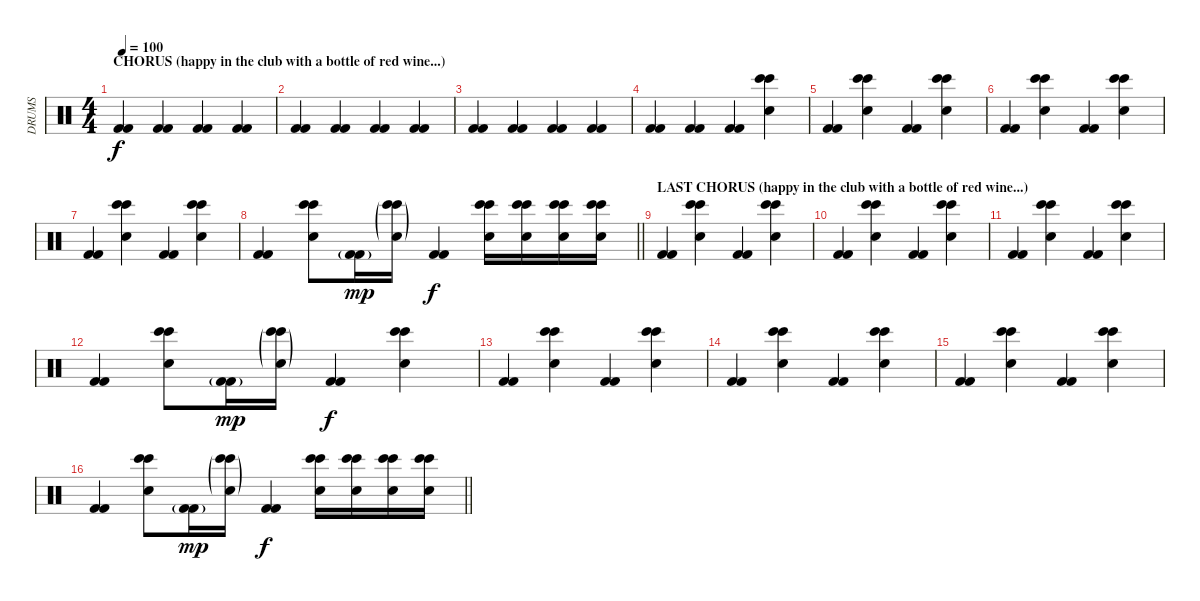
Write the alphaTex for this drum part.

\track ("DRUMS" "DRUMS") {instrument percussion}
\staff {score}
\articulation defaults
\ts (4 4)
\section ("" "CHORUS (happy in the club with a bottle of red wine...)")
\tempo 100
\clef neutral
\ks c
("Kick (hit) 2" "Kick (hit) 2").4{dy f} ("Kick (hit) 2" "Kick (hit) 2").4 ("Kick (hit) 2" "Kick (hit) 2").4 ("Kick (hit) 2" "Kick (hit) 2").4 |
("Kick (hit) 2" "Kick (hit) 2").4 ("Kick (hit) 2" "Kick (hit) 2").4 ("Kick (hit) 2" "Kick (hit) 2").4 ("Kick (hit) 2" "Kick (hit) 2").4 |
("Kick (hit) 2" "Kick (hit) 2").4 ("Kick (hit) 2" "Kick (hit) 2").4 ("Kick (hit) 2" "Kick (hit) 2").4 ("Kick (hit) 2" "Kick (hit) 2").4 |
("Kick (hit) 2" "Kick (hit) 2").4 ("Kick (hit) 2" "Kick (hit) 2").4 ("Kick (hit) 2" "Kick (hit) 2").4 ("Bongo High (hit)" "Bongo High (hit)" "Snare (hit) 2").4 |
("Kick (hit) 2" "Kick (hit) 2").4 ("Bongo High (hit)" "Bongo High (hit)" "Snare (hit) 2").4 ("Kick (hit) 2" "Kick (hit) 2").4 ("Bongo High (hit)" "Bongo High (hit)" "Snare (hit) 2").4 |
("Kick (hit) 2" "Kick (hit) 2").4 ("Bongo High (hit)" "Bongo High (hit)" "Snare (hit) 2").4 ("Kick (hit) 2" "Kick (hit) 2").4 ("Bongo High (hit)" "Bongo High (hit)" "Snare (hit) 2").4 |
("Kick (hit) 2" "Kick (hit) 2").4 ("Bongo High (hit)" "Bongo High (hit)" "Snare (hit) 2").4 ("Kick (hit) 2" "Kick (hit) 2").4 ("Bongo High (hit)" "Bongo High (hit)" "Snare (hit) 2").4 |
\barLineRight lightlight
("Kick (hit) 2" "Kick (hit) 2").4 ("Bongo High (hit)" "Bongo High (hit)" "Snare (hit) 2").8 ("Kick (hit) 2"{g} "Kick (hit) 2"{g}).16{dy mp} ("Bongo High (hit)"{g} "Bongo High (hit)"{g} "Snare (hit) 2"{g}).16 ("Kick (hit) 2" "Kick (hit) 2").4{dy f} ("Bongo High (hit)" "Bongo High (hit)" "Snare (hit) 2").16 ("Bongo High (hit)" "Bongo High (hit)" "Snare (hit) 2").16 ("Bongo High (hit)" "Bongo High (hit)" "Snare (hit) 2").16 ("Bongo High (hit)" "Bongo High (hit)" "Snare (hit) 2").16 |
\section ("" "LAST CHORUS (happy in the club with a bottle of red wine...)")
("Kick (hit) 2" "Kick (hit) 2").4 ("Bongo High (hit)" "Bongo High (hit)" "Snare (hit) 2").4 ("Kick (hit) 2" "Kick (hit) 2").4 ("Bongo High (hit)" "Bongo High (hit)" "Snare (hit) 2").4 |
("Kick (hit) 2" "Kick (hit) 2").4 ("Bongo High (hit)" "Bongo High (hit)" "Snare (hit) 2").4 ("Kick (hit) 2" "Kick (hit) 2").4 ("Bongo High (hit)" "Bongo High (hit)" "Snare (hit) 2").4 |
("Kick (hit) 2" "Kick (hit) 2").4 ("Bongo High (hit)" "Bongo High (hit)" "Snare (hit) 2").4 ("Kick (hit) 2" "Kick (hit) 2").4 ("Bongo High (hit)" "Bongo High (hit)" "Snare (hit) 2").4 |
("Kick (hit) 2" "Kick (hit) 2").4 ("Bongo High (hit)" "Bongo High (hit)" "Snare (hit) 2").8 ("Kick (hit) 2"{g} "Kick (hit) 2"{g}).16{dy mp} ("Bongo High (hit)"{g} "Bongo High (hit)"{g} "Snare (hit) 2"{g}).16 ("Kick (hit) 2" "Kick (hit) 2").4{dy f} ("Bongo High (hit)" "Bongo High (hit)" "Snare (hit) 2").4 |
("Kick (hit) 2" "Kick (hit) 2").4 ("Bongo High (hit)" "Bongo High (hit)" "Snare (hit) 2").4 ("Kick (hit) 2" "Kick (hit) 2").4 ("Bongo High (hit)" "Bongo High (hit)" "Snare (hit) 2").4 |
("Kick (hit) 2" "Kick (hit) 2").4 ("Bongo High (hit)" "Bongo High (hit)" "Snare (hit) 2").4 ("Kick (hit) 2" "Kick (hit) 2").4 ("Bongo High (hit)" "Bongo High (hit)" "Snare (hit) 2").4 |
("Kick (hit) 2" "Kick (hit) 2").4 ("Bongo High (hit)" "Bongo High (hit)" "Snare (hit) 2").4 ("Kick (hit) 2" "Kick (hit) 2").4 ("Bongo High (hit)" "Bongo High (hit)" "Snare (hit) 2").4 |
\barLineRight lightlight
("Kick (hit) 2" "Kick (hit) 2").4 ("Bongo High (hit)" "Bongo High (hit)" "Snare (hit) 2").8 ("Kick (hit) 2"{g} "Kick (hit) 2"{g}).16{dy mp} ("Bongo High (hit)"{g} "Bongo High (hit)"{g} "Snare (hit) 2"{g}).16 ("Kick (hit) 2" "Kick (hit) 2").4{dy f} ("Bongo High (hit)" "Bongo High (hit)" "Snare (hit) 2").16 ("Bongo High (hit)" "Bongo High (hit)" "Snare (hit) 2").16 ("Bongo High (hit)" "Bongo High (hit)" "Snare (hit) 2").16 ("Bongo High (hit)" "Bongo High (hit)" "Snare (hit) 2").16
